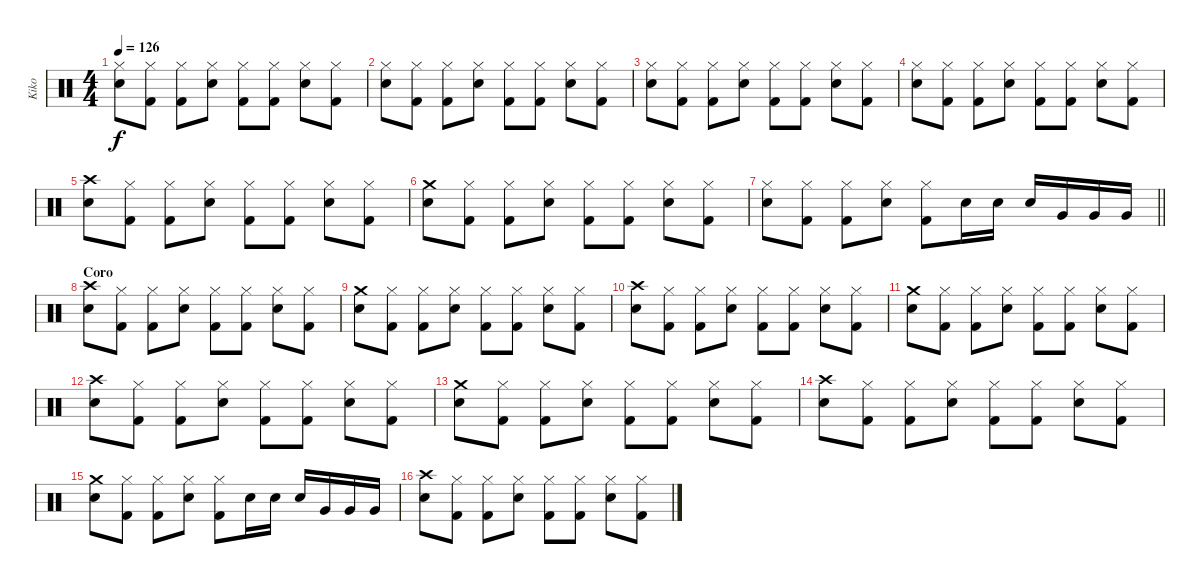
\track ("Kiko" "Kiko") {instrument percussion}
\staff {score}
\articulation defaults
\ts (4 4)
\tempo 126
\clef neutral
\ks c
("Hi-Hat (closed)" "Electric Snare (hit)").8{dy f} ("Hi-Hat (closed)" "Kick (hit) 2").8 ("Hi-Hat (closed)" "Kick (hit) 2").8 ("Hi-Hat (closed)" "Electric Snare (hit)").8 ("Hi-Hat (closed)" "Kick (hit) 2").8 ("Hi-Hat (closed)" "Kick (hit) 2").8 ("Hi-Hat (closed)" "Electric Snare (hit)").8 ("Hi-Hat (closed)" "Kick (hit) 2").8 |
("Hi-Hat (closed)" "Electric Snare (hit)").8 ("Hi-Hat (closed)" "Kick (hit) 2").8 ("Hi-Hat (closed)" "Kick (hit) 2").8 ("Hi-Hat (closed)" "Electric Snare (hit)").8 ("Hi-Hat (closed)" "Kick (hit) 2").8 ("Hi-Hat (closed)" "Kick (hit) 2").8 ("Hi-Hat (closed)" "Electric Snare (hit)").8 ("Hi-Hat (closed)" "Kick (hit) 2").8 |
("Hi-Hat (closed)" "Electric Snare (hit)").8 ("Hi-Hat (closed)" "Kick (hit) 2").8 ("Hi-Hat (closed)" "Kick (hit) 2").8 ("Hi-Hat (closed)" "Electric Snare (hit)").8 ("Hi-Hat (closed)" "Kick (hit) 2").8 ("Hi-Hat (closed)" "Kick (hit) 2").8 ("Hi-Hat (closed)" "Electric Snare (hit)").8 ("Hi-Hat (closed)" "Kick (hit) 2").8 |
("Hi-Hat (closed)" "Electric Snare (hit)").8 ("Hi-Hat (closed)" "Kick (hit) 2").8 ("Hi-Hat (closed)" "Kick (hit) 2").8 ("Hi-Hat (closed)" "Electric Snare (hit)").8 ("Hi-Hat (closed)" "Kick (hit) 2").8 ("Hi-Hat (closed)" "Kick (hit) 2").8 ("Hi-Hat (closed)" "Electric Snare (hit)").8 ("Hi-Hat (closed)" "Kick (hit) 2").8 |
("Crash high (hit)" "Electric Snare (hit)").8 ("Hi-Hat (closed)" "Kick (hit) 2").8 ("Hi-Hat (closed)" "Kick (hit) 2").8 ("Hi-Hat (closed)" "Electric Snare (hit)").8 ("Hi-Hat (closed)" "Kick (hit) 2").8 ("Hi-Hat (closed)" "Kick (hit) 2").8 ("Hi-Hat (closed)" "Electric Snare (hit)").8 ("Hi-Hat (closed)" "Kick (hit) 2").8 |
("Crash medium (hit)" "Electric Snare (hit)").8 ("Hi-Hat (closed)" "Kick (hit) 2").8 ("Hi-Hat (closed)" "Kick (hit) 2").8 ("Hi-Hat (closed)" "Electric Snare (hit)").8 ("Hi-Hat (closed)" "Kick (hit) 2").8 ("Hi-Hat (closed)" "Kick (hit) 2").8 ("Hi-Hat (closed)" "Electric Snare (hit)").8 ("Hi-Hat (closed)" "Kick (hit) 2").8 |
\barLineRight lightlight
("Hi-Hat (closed)" "Electric Snare (hit)").8 ("Hi-Hat (closed)" "Kick (hit) 2").8 ("Hi-Hat (closed)" "Kick (hit) 2").8 ("Hi-Hat (closed)" "Electric Snare (hit)").8 ("Hi-Hat (closed)" "Kick (hit) 2").8 "Electric Snare (hit)".16 "Electric Snare (hit)".16 "Electric Snare (hit)".16 "Very Low Tom (hit)".16 "Very Low Tom (hit)".16 "Very Low Tom (hit)".16 |
\section ("" "Coro")
("Crash high (hit)" "Electric Snare (hit)").8 ("Hi-Hat (closed)" "Kick (hit) 2").8 ("Hi-Hat (closed)" "Kick (hit) 2").8 ("Hi-Hat (closed)" "Electric Snare (hit)").8 ("Hi-Hat (closed)" "Kick (hit) 2").8 ("Hi-Hat (closed)" "Kick (hit) 2").8 ("Hi-Hat (closed)" "Electric Snare (hit)").8 ("Hi-Hat (closed)" "Kick (hit) 2").8 |
("Crash medium (hit)" "Electric Snare (hit)").8 ("Hi-Hat (closed)" "Kick (hit) 2").8 ("Hi-Hat (closed)" "Kick (hit) 2").8 ("Hi-Hat (closed)" "Electric Snare (hit)").8 ("Hi-Hat (closed)" "Kick (hit) 2").8 ("Hi-Hat (closed)" "Kick (hit) 2").8 ("Hi-Hat (closed)" "Electric Snare (hit)").8 ("Hi-Hat (closed)" "Kick (hit) 2").8 |
("Crash high (hit)" "Electric Snare (hit)").8 ("Hi-Hat (closed)" "Kick (hit) 2").8 ("Hi-Hat (closed)" "Kick (hit) 2").8 ("Hi-Hat (closed)" "Electric Snare (hit)").8 ("Hi-Hat (closed)" "Kick (hit) 2").8 ("Hi-Hat (closed)" "Kick (hit) 2").8 ("Hi-Hat (closed)" "Electric Snare (hit)").8 ("Hi-Hat (closed)" "Kick (hit) 2").8 |
("Crash medium (hit)" "Electric Snare (hit)").8 ("Hi-Hat (closed)" "Kick (hit) 2").8 ("Hi-Hat (closed)" "Kick (hit) 2").8 ("Hi-Hat (closed)" "Electric Snare (hit)").8 ("Hi-Hat (closed)" "Kick (hit) 2").8 ("Hi-Hat (closed)" "Kick (hit) 2").8 ("Hi-Hat (closed)" "Electric Snare (hit)").8 ("Hi-Hat (closed)" "Kick (hit) 2").8 |
("Crash high (hit)" "Electric Snare (hit)").8 ("Hi-Hat (closed)" "Kick (hit) 2").8 ("Hi-Hat (closed)" "Kick (hit) 2").8 ("Hi-Hat (closed)" "Electric Snare (hit)").8 ("Hi-Hat (closed)" "Kick (hit) 2").8 ("Hi-Hat (closed)" "Kick (hit) 2").8 ("Hi-Hat (closed)" "Electric Snare (hit)").8 ("Hi-Hat (closed)" "Kick (hit) 2").8 |
("Crash medium (hit)" "Electric Snare (hit)").8 ("Hi-Hat (closed)" "Kick (hit) 2").8 ("Hi-Hat (closed)" "Kick (hit) 2").8 ("Hi-Hat (closed)" "Electric Snare (hit)").8 ("Hi-Hat (closed)" "Kick (hit) 2").8 ("Hi-Hat (closed)" "Kick (hit) 2").8 ("Hi-Hat (closed)" "Electric Snare (hit)").8 ("Hi-Hat (closed)" "Kick (hit) 2").8 |
("Crash high (hit)" "Electric Snare (hit)").8 ("Hi-Hat (closed)" "Kick (hit) 2").8 ("Hi-Hat (closed)" "Kick (hit) 2").8 ("Hi-Hat (closed)" "Electric Snare (hit)").8 ("Hi-Hat (closed)" "Kick (hit) 2").8 ("Hi-Hat (closed)" "Kick (hit) 2").8 ("Hi-Hat (closed)" "Electric Snare (hit)").8 ("Hi-Hat (closed)" "Kick (hit) 2").8 |
("Crash medium (hit)" "Electric Snare (hit)").8 ("Hi-Hat (closed)" "Kick (hit) 2").8 ("Hi-Hat (closed)" "Kick (hit) 2").8 ("Hi-Hat (closed)" "Electric Snare (hit)").8 ("Hi-Hat (closed)" "Kick (hit) 2").8 "Electric Snare (hit)".16 "Electric Snare (hit)".16 "Electric Snare (hit)".16 "Very Low Tom (hit)".16 "Very Low Tom (hit)".16 "Very Low Tom (hit)".16 |
("Crash high (hit)" "Electric Snare (hit)").8 ("Hi-Hat (closed)" "Kick (hit) 2").8 ("Hi-Hat (closed)" "Kick (hit) 2").8 ("Hi-Hat (closed)" "Electric Snare (hit)").8 ("Hi-Hat (closed)" "Kick (hit) 2").8 ("Hi-Hat (closed)" "Kick (hit) 2").8 ("Hi-Hat (closed)" "Electric Snare (hit)").8 ("Hi-Hat (closed)" "Kick (hit) 2").8
